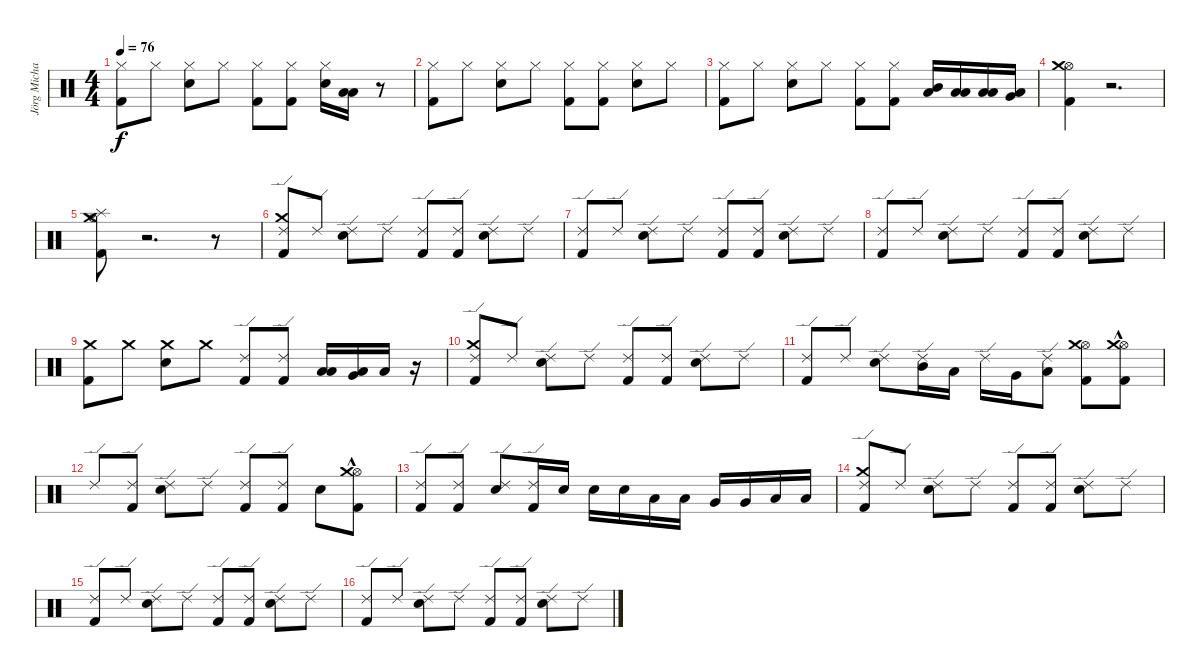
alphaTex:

\track ("Jörg Michael" "Jörg Micha") {instrument percussion}
\staff {score}
\articulation defaults
\ts (4 4)
\tempo 76
\clef neutral
\ks c
("Hi-Hat (closed)" "Kick (hit) 2").8{dy f} "Hi-Hat (closed)".8 ("Hi-Hat (closed)" "Electric Snare (hit)").8 "Hi-Hat (closed)".8 ("Hi-Hat (closed)" "Kick (hit) 2").8 ("Hi-Hat (closed)" "Kick (hit) 2").8 ("Hi-Hat (closed)" "Electric Snare (hit)").16 ("Low Tom (hit)" "Low Floor Tom (hit)").16 r.8 |
("Hi-Hat (closed)" "Kick (hit) 2").8 "Hi-Hat (closed)".8 ("Hi-Hat (closed)" "Electric Snare (hit)").8 "Hi-Hat (closed)".8 ("Hi-Hat (closed)" "Kick (hit) 2").8 ("Hi-Hat (closed)" "Kick (hit) 2").8 ("Hi-Hat (closed)" "Electric Snare (hit)").8 "Hi-Hat (closed)".8 |
("Hi-Hat (closed)" "Kick (hit) 2").8 "Hi-Hat (closed)".8 ("Hi-Hat (closed)" "Electric Snare (hit)").8 "Hi-Hat (closed)".8 ("Hi-Hat (closed)" "Kick (hit) 2").8 ("Hi-Hat (closed)" "Kick (hit) 2").8 ("Mid Tom (hit)" "Low Floor Tom (hit)").16 ("Low Tom (hit)" "Low Floor Tom (hit)").16 ("Low Tom (hit)" "Low Floor Tom (hit)").16 ("Very Low Tom (hit)" "Low Floor Tom (hit)").16 |
("Hi-Hat (open)" "Kick (hit) 2" "Crash medium (hit)").4 r.2{d} |
("Splash (hit)" "Crash medium (hit)" "Hi-Hat (open)" "Kick (hit) 2").8 r.2{d} r.8 |
("Ride (edge) 2" "Crash medium (hit)" "Kick (hit) 2").8 "Ride (edge) 2".8 ("Ride (edge) 2" "Electric Snare (hit)").8 "Ride (edge) 2".8 ("Ride (edge) 2" "Kick (hit) 2").8 ("Ride (edge) 2" "Kick (hit) 2").8 ("Ride (edge) 2" "Electric Snare (hit)").8 "Ride (edge) 2".8 |
("Ride (edge) 2" "Kick (hit) 2").8 "Ride (edge) 2".8 ("Ride (edge) 2" "Electric Snare (hit)").8 "Ride (edge) 2".8 ("Ride (edge) 2" "Kick (hit) 2").8 ("Ride (edge) 2" "Kick (hit) 2").8 ("Ride (edge) 2" "Electric Snare (hit)").8 "Ride (edge) 2".8 |
("Ride (edge) 2" "Kick (hit) 2").8 "Ride (edge) 2".8 ("Ride (edge) 2" "Electric Snare (hit)").8 "Ride (edge) 2".8 ("Ride (edge) 2" "Kick (hit) 2").8 ("Ride (edge) 2" "Kick (hit) 2").8 ("Ride (edge) 2" "Electric Snare (hit)").8 "Ride (edge) 2".8 |
("Crash medium (hit)" "Kick (hit) 2").8 "Crash medium (hit)".8 ("Crash medium (hit)" "Electric Snare (hit)").8 "Crash medium (hit)".8 ("Ride (edge) 2" "Kick (hit) 2").8 ("Ride (edge) 2" "Kick (hit) 2").8 ("Low Floor Tom (hit)" "Low Tom (hit)").16 ("Low Floor Tom (hit)" "Very Low Tom (hit)").16 "Low Floor Tom (hit)".16 r.16 |
("Ride (edge) 2" "Crash medium (hit)" "Kick (hit) 2").8 "Ride (edge) 2".8 ("Ride (edge) 2" "Electric Snare (hit)").8 "Ride (edge) 2".8 ("Ride (edge) 2" "Kick (hit) 2").8 ("Ride (edge) 2" "Kick (hit) 2").8 ("Ride (edge) 2" "Electric Snare (hit)").8 "Ride (edge) 2".8 |
("Kick (hit) 2" "Ride (edge) 2").8 "Ride (edge) 2".8 ("Electric Snare (hit)" "Ride (edge) 2").8 ("Mid Tom (hit)" "Ride (edge) 2").16 "Low Tom (hit)".16 "Ride (edge) 2".16 "Very Low Tom (hit)".16 ("Low Floor Tom (hit)" "Ride (edge) 2").8 ("Hi-Hat (open)" "Crash medium (hit)" "Kick (hit) 2").8 ("Hi-Hat (open)" "Crash medium (hit)"{hac} "Kick (hit) 2").8 |
"Ride (edge) 2".8 ("Ride (edge) 2" "Kick (hit) 2").8 ("Ride (edge) 2" "Electric Snare (hit)").8 "Ride (edge) 2".8 ("Ride (edge) 2" "Kick (hit) 2").8 ("Ride (edge) 2" "Kick (hit) 2").8 "Electric Snare (hit)".8 ("Hi-Hat (open)" "Crash medium (hit)"{hac} "Kick (hit) 2").8 |
("Ride (edge) 2" "Kick (hit) 2").8 ("Kick (hit) 2" "Ride (edge) 2").8 ("Electric Snare (hit)" "Ride (edge) 2").8 ("Kick (hit) 2" "Ride (edge) 2").16 "Electric Snare (hit)".16 "Electric Snare (hit)".16 "Electric Snare (hit)".16 "Low Tom (hit)".16 "Low Tom (hit)".16 "Very Low Tom (hit)".16 "Very Low Tom (hit)".16 "Low Floor Tom (hit)".16 "Low Floor Tom (hit)".16 |
("Ride (edge) 2" "Crash medium (hit)" "Kick (hit) 2").8 "Ride (edge) 2".8 ("Ride (edge) 2" "Electric Snare (hit)").8 "Ride (edge) 2".8 ("Ride (edge) 2" "Kick (hit) 2").8 ("Ride (edge) 2" "Kick (hit) 2").8 ("Ride (edge) 2" "Electric Snare (hit)").8 "Ride (edge) 2".8 |
("Ride (edge) 2" "Kick (hit) 2").8 "Ride (edge) 2".8 ("Ride (edge) 2" "Electric Snare (hit)").8 "Ride (edge) 2".8 ("Ride (edge) 2" "Kick (hit) 2").8 ("Ride (edge) 2" "Kick (hit) 2").8 ("Ride (edge) 2" "Electric Snare (hit)").8 "Ride (edge) 2".8 |
("Ride (edge) 2" "Kick (hit) 2").8 "Ride (edge) 2".8 ("Ride (edge) 2" "Electric Snare (hit)").8 "Ride (edge) 2".8 ("Ride (edge) 2" "Kick (hit) 2").8 ("Ride (edge) 2" "Kick (hit) 2").8 ("Ride (edge) 2" "Electric Snare (hit)").8 "Ride (edge) 2".8
